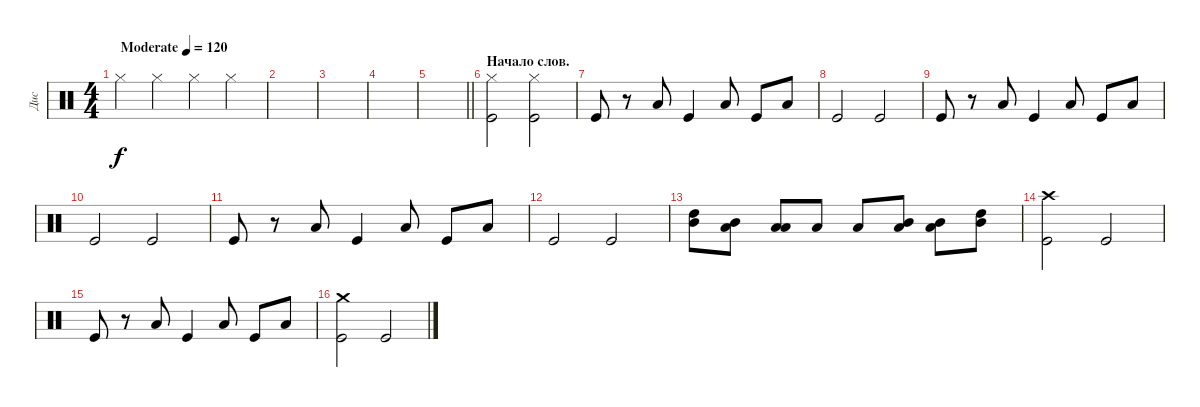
\track ("Дис" "Дис") {instrument percussion}
\staff {score}
\articulation defaults
\ts (4 4)
\tempo (120 "Moderate")
\clef neutral
\ks c "Hi-Hat (closed)".4{dy f} "Hi-Hat (closed)".4 "Hi-Hat (closed)".4 "Hi-Hat (closed)".4
|
|
|
|
\barLineRight lightlight
|
\section ("" "Начало слов.")
("Hi-Hat (closed)" "Kick (hit)").2 ("Hi-Hat (closed)" "Kick (hit)").2 |
"Kick (hit)".8 r.8 "Low Tom (hit)".8 "Kick (hit)".4 "Low Tom (hit)".8 "Kick (hit)".8 "Low Tom (hit)".8 |
"Kick (hit)".2 "Kick (hit)".2 |
"Kick (hit)".8 r.8 "Low Tom (hit)".8 "Kick (hit)".4 "Low Tom (hit)".8 "Kick (hit)".8 "Low Tom (hit)".8 |
"Kick (hit)".2 "Kick (hit)".2 |
"Kick (hit)".8 r.8 "Low Tom (hit)".8 "Kick (hit)".4 "Low Tom (hit)".8 "Kick (hit)".8 "Low Tom (hit)".8 |
"Kick (hit)".2 "Kick (hit)".2 |
("High Tom (hit)" "Mid Tom (hit)").8 ("Mid Tom (hit)" "Low Tom (hit)").8 ("Low Tom (hit)" "Low Tom (hit)").8 "Low Tom (hit)".8 "Low Tom (hit)".8 ("Mid Tom (hit)" "Low Tom (hit)").8 ("Mid Tom (hit)" "Low Tom (hit)").8 ("High Tom (hit)" "Mid Tom (hit)").8 |
("Kick (hit)" "Crash high (hit)").2 "Kick (hit)".2 |
"Kick (hit)".8 r.8 "Low Tom (hit)".8 "Kick (hit)".4 "Low Tom (hit)".8 "Kick (hit)".8 "Low Tom (hit)".8 |
("Kick (hit)" "Crash medium (hit)").2 "Kick (hit)".2
